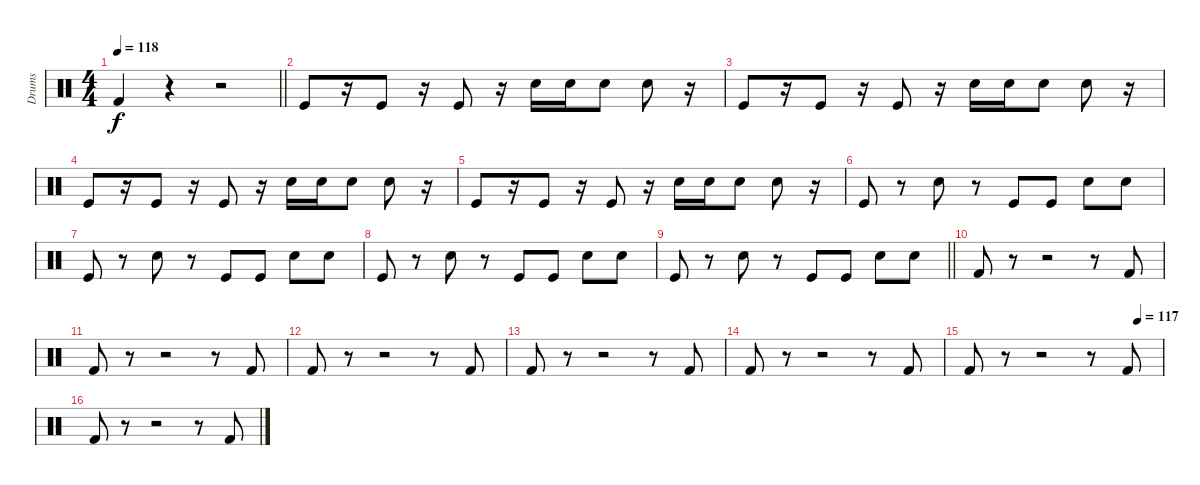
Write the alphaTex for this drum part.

\track ("Drums" "Drums") {instrument percussion}
\staff {score}
\articulation defaults
\ts (4 4)
\tempo 118
\clef neutral
\barLineRight lightlight
\ks c "Kick (hit) 2".4{dy f}
r.4 r.2 |
"Kick (hit)".8 r.16 "Kick (hit)".8 r.16 "Kick (hit)".8 r.16 "Snare (hit) 2".16 "Snare (hit) 2".16 "Snare (hit) 2".8 "Snare (hit) 2".8 r.16 |
"Kick (hit)".8 r.16 "Kick (hit)".8 r.16 "Kick (hit)".8 r.16 "Snare (hit) 2".16 "Snare (hit) 2".16 "Snare (hit) 2".8 "Snare (hit) 2".8 r.16 |
"Kick (hit)".8 r.16 "Kick (hit)".8 r.16 "Kick (hit)".8 r.16 "Snare (hit) 2".16 "Snare (hit) 2".16 "Snare (hit) 2".8 "Snare (hit) 2".8 r.16 |
"Kick (hit)".8 r.16 "Kick (hit)".8 r.16 "Kick (hit)".8 r.16 "Snare (hit) 2".16 "Snare (hit) 2".16 "Snare (hit) 2".8 "Snare (hit) 2".8 r.16 |
"Kick (hit)".8 r.8 "Snare (hit) 2".8 r.8 "Kick (hit)".8 "Kick (hit)".8 "Snare (hit) 2".8 "Snare (hit) 2".8 |
"Kick (hit)".8 r.8 "Snare (hit) 2".8 r.8 "Kick (hit)".8 "Kick (hit)".8 "Snare (hit) 2".8 "Snare (hit) 2".8 |
"Kick (hit)".8 r.8 "Snare (hit) 2".8 r.8 "Kick (hit)".8 "Kick (hit)".8 "Snare (hit) 2".8 "Snare (hit) 2".8 |
\barLineRight lightlight "Kick (hit)".8
r.8 "Snare (hit) 2".8 r.8 "Kick (hit)".8 "Kick (hit)".8 "Snare (hit) 2".8 "Snare (hit) 2".8 |
"Kick (hit) 2".8 r.8 r.2 r.8 "Kick (hit) 2".8 |
"Kick (hit) 2".8 r.8 r.2 r.8 "Kick (hit) 2".8 |
"Kick (hit) 2".8 r.8 r.2 r.8 "Kick (hit) 2".8 |
"Kick (hit) 2".8 r.8 r.2 r.8 "Kick (hit) 2".8 |
"Kick (hit) 2".8 r.8 r.2 r.8 "Kick (hit) 2".8 |
\tempo (117 0.875)
"Kick (hit) 2".8 r.8 r.2 r.8 "Kick (hit) 2".8 |
"Kick (hit) 2".8 r.8 r.2 r.8 "Kick (hit) 2".8
